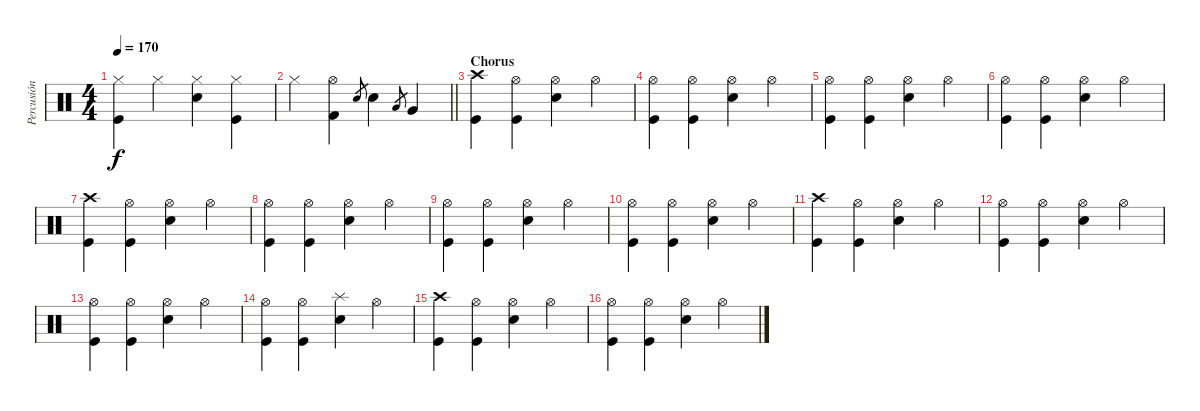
\track ("Percusión" "Percusión") {instrument percussion}
\staff {score}
\articulation defaults
\ts (4 4)
\tempo 170
\clef neutral
\ks c
("Hi-Hat (closed)" "Kick (hit)").4{dy f} "Hi-Hat (closed)".4 ("Hi-Hat (closed)" "Electric Snare (hit)").4 ("Hi-Hat (closed)" "Kick (hit)").4 |
\barLineRight lightlight "Hi-Hat (closed)".4
("Hi-Hat (open)" "Kick (hit) 2").4 "Electric Snare (hit)".8{gr} "Electric Snare (hit)".4 "Low Floor Tom (hit)".8{gr} "Very Low Tom (hit)".4 |
\section ("" "Chorus")
("Crash high (hit)" "Kick (hit)").4 ("Hi-Hat (open)" "Kick (hit)").4 ("Hi-Hat (open)" "Electric Snare (hit)").4 "Hi-Hat (open)".4 |
("Hi-Hat (open)" "Kick (hit)").4 ("Hi-Hat (open)" "Kick (hit)").4 ("Hi-Hat (open)" "Electric Snare (hit)").4 "Hi-Hat (open)".4 |
("Hi-Hat (open)" "Kick (hit)").4 ("Hi-Hat (open)" "Kick (hit)").4 ("Hi-Hat (open)" "Electric Snare (hit)").4 "Hi-Hat (open)".4 |
("Hi-Hat (open)" "Kick (hit)").4 ("Hi-Hat (open)" "Kick (hit)").4 ("Hi-Hat (open)" "Electric Snare (hit)").4 "Hi-Hat (open)".4 |
("Crash high (hit)" "Kick (hit)").4 ("Hi-Hat (open)" "Kick (hit)").4 ("Hi-Hat (open)" "Electric Snare (hit)").4 "Hi-Hat (open)".4 |
("Hi-Hat (open)" "Kick (hit)").4 ("Hi-Hat (open)" "Kick (hit)").4 ("Hi-Hat (open)" "Electric Snare (hit)").4 "Hi-Hat (open)".4 |
("Hi-Hat (open)" "Kick (hit)").4 ("Hi-Hat (open)" "Kick (hit)").4 ("Hi-Hat (open)" "Electric Snare (hit)").4 "Hi-Hat (open)".4 |
("Hi-Hat (open)" "Kick (hit)").4 ("Hi-Hat (open)" "Kick (hit)").4 ("Hi-Hat (open)" "Electric Snare (hit)").4 "Hi-Hat (open)".4 |
("Crash high (hit)" "Kick (hit)").4 ("Hi-Hat (open)" "Kick (hit)").4 ("Hi-Hat (open)" "Electric Snare (hit)").4 "Hi-Hat (open)".4 |
("Hi-Hat (open)" "Kick (hit)").4 ("Hi-Hat (open)" "Kick (hit)").4 ("Hi-Hat (open)" "Electric Snare (hit)").4 "Hi-Hat (open)".4 |
("Hi-Hat (open)" "Kick (hit)").4 ("Hi-Hat (open)" "Kick (hit)").4 ("Hi-Hat (open)" "Electric Snare (hit)").4 "Hi-Hat (open)".4 |
("Hi-Hat (open)" "Kick (hit)").4 ("Hi-Hat (open)" "Kick (hit)").4 ("Splash (hit)" "Electric Snare (hit)").4 "Hi-Hat (open)".4 |
("Crash high (hit)" "Kick (hit)").4 ("Hi-Hat (open)" "Kick (hit)").4 ("Hi-Hat (open)" "Electric Snare (hit)").4 "Hi-Hat (open)".4 |
("Hi-Hat (open)" "Kick (hit)").4 ("Hi-Hat (open)" "Kick (hit)").4 ("Hi-Hat (open)" "Electric Snare (hit)").4 "Hi-Hat (open)".4
